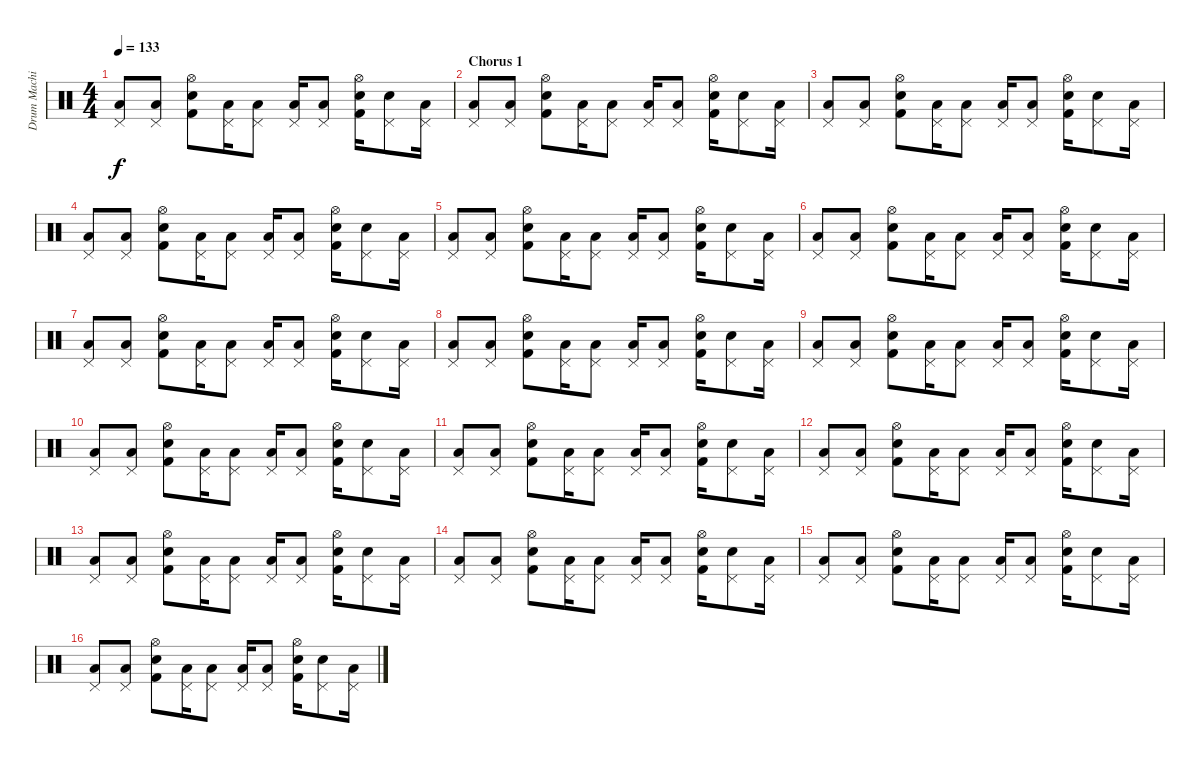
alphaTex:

\track ("Drum Machine" "Drum Machi") {instrument percussion}
\staff {score}
\articulation defaults
\ts (4 4)
\tempo 133
\clef neutral
\ks c
("Pedal Hi-Hat (hit)" "Low Tom (hit)").8{dy f} ("Pedal Hi-Hat (hit)" "Low Tom (hit)").8 ("Hi-Hat (open)" "Snare (hit) 2" "Kick (hit) 2").8 ("Pedal Hi-Hat (hit)" "Low Tom (hit)").16 ("Pedal Hi-Hat (hit)" "Low Tom (hit)").8 ("Pedal Hi-Hat (hit)" "Low Tom (hit)").16 ("Pedal Hi-Hat (hit)" "Low Tom (hit)").8 ("Hi-Hat (open)" "Snare (hit) 2" "Kick (hit) 2").16 ("Pedal Hi-Hat (hit)" "Snare (hit) 2").8 ("Pedal Hi-Hat (hit)" "Low Tom (hit)").16 |
\section ("" "Chorus 1")
("Pedal Hi-Hat (hit)" "Low Tom (hit)").8 ("Pedal Hi-Hat (hit)" "Low Tom (hit)").8 ("Hi-Hat (open)" "Snare (hit) 2" "Kick (hit) 2").8 ("Pedal Hi-Hat (hit)" "Low Tom (hit)").16 ("Pedal Hi-Hat (hit)" "Low Tom (hit)").8 ("Pedal Hi-Hat (hit)" "Low Tom (hit)").16 ("Pedal Hi-Hat (hit)" "Low Tom (hit)").8 ("Hi-Hat (open)" "Snare (hit) 2" "Kick (hit) 2").16 ("Pedal Hi-Hat (hit)" "Snare (hit) 2").8 ("Pedal Hi-Hat (hit)" "Low Tom (hit)").16 |
("Pedal Hi-Hat (hit)" "Low Tom (hit)").8 ("Pedal Hi-Hat (hit)" "Low Tom (hit)").8 ("Hi-Hat (open)" "Snare (hit) 2" "Kick (hit) 2").8 ("Pedal Hi-Hat (hit)" "Low Tom (hit)").16 ("Pedal Hi-Hat (hit)" "Low Tom (hit)").8 ("Pedal Hi-Hat (hit)" "Low Tom (hit)").16 ("Pedal Hi-Hat (hit)" "Low Tom (hit)").8 ("Hi-Hat (open)" "Snare (hit) 2" "Kick (hit) 2").16 ("Pedal Hi-Hat (hit)" "Snare (hit) 2").8 ("Pedal Hi-Hat (hit)" "Low Tom (hit)").16 |
("Pedal Hi-Hat (hit)" "Low Tom (hit)").8 ("Pedal Hi-Hat (hit)" "Low Tom (hit)").8 ("Hi-Hat (open)" "Snare (hit) 2" "Kick (hit) 2").8 ("Pedal Hi-Hat (hit)" "Low Tom (hit)").16 ("Pedal Hi-Hat (hit)" "Low Tom (hit)").8 ("Pedal Hi-Hat (hit)" "Low Tom (hit)").16 ("Pedal Hi-Hat (hit)" "Low Tom (hit)").8 ("Hi-Hat (open)" "Snare (hit) 2" "Kick (hit) 2").16 ("Pedal Hi-Hat (hit)" "Snare (hit) 2").8 ("Pedal Hi-Hat (hit)" "Low Tom (hit)").16 |
("Pedal Hi-Hat (hit)" "Low Tom (hit)").8 ("Pedal Hi-Hat (hit)" "Low Tom (hit)").8 ("Hi-Hat (open)" "Snare (hit) 2" "Kick (hit) 2").8 ("Pedal Hi-Hat (hit)" "Low Tom (hit)").16 ("Pedal Hi-Hat (hit)" "Low Tom (hit)").8 ("Pedal Hi-Hat (hit)" "Low Tom (hit)").16 ("Pedal Hi-Hat (hit)" "Low Tom (hit)").8 ("Hi-Hat (open)" "Snare (hit) 2" "Kick (hit) 2").16 ("Pedal Hi-Hat (hit)" "Snare (hit) 2").8 ("Pedal Hi-Hat (hit)" "Low Tom (hit)").16 |
("Pedal Hi-Hat (hit)" "Low Tom (hit)").8 ("Pedal Hi-Hat (hit)" "Low Tom (hit)").8 ("Hi-Hat (open)" "Snare (hit) 2" "Kick (hit) 2").8 ("Pedal Hi-Hat (hit)" "Low Tom (hit)").16 ("Pedal Hi-Hat (hit)" "Low Tom (hit)").8 ("Pedal Hi-Hat (hit)" "Low Tom (hit)").16 ("Pedal Hi-Hat (hit)" "Low Tom (hit)").8 ("Hi-Hat (open)" "Snare (hit) 2" "Kick (hit) 2").16 ("Pedal Hi-Hat (hit)" "Snare (hit) 2").8 ("Pedal Hi-Hat (hit)" "Low Tom (hit)").16 |
("Pedal Hi-Hat (hit)" "Low Tom (hit)").8 ("Pedal Hi-Hat (hit)" "Low Tom (hit)").8 ("Hi-Hat (open)" "Snare (hit) 2" "Kick (hit) 2").8 ("Pedal Hi-Hat (hit)" "Low Tom (hit)").16 ("Pedal Hi-Hat (hit)" "Low Tom (hit)").8 ("Pedal Hi-Hat (hit)" "Low Tom (hit)").16 ("Pedal Hi-Hat (hit)" "Low Tom (hit)").8 ("Hi-Hat (open)" "Snare (hit) 2" "Kick (hit) 2").16 ("Pedal Hi-Hat (hit)" "Snare (hit) 2").8 ("Pedal Hi-Hat (hit)" "Low Tom (hit)").16 |
("Pedal Hi-Hat (hit)" "Low Tom (hit)").8 ("Pedal Hi-Hat (hit)" "Low Tom (hit)").8 ("Hi-Hat (open)" "Snare (hit) 2" "Kick (hit) 2").8 ("Pedal Hi-Hat (hit)" "Low Tom (hit)").16 ("Pedal Hi-Hat (hit)" "Low Tom (hit)").8 ("Pedal Hi-Hat (hit)" "Low Tom (hit)").16 ("Pedal Hi-Hat (hit)" "Low Tom (hit)").8 ("Hi-Hat (open)" "Snare (hit) 2" "Kick (hit) 2").16 ("Pedal Hi-Hat (hit)" "Snare (hit) 2").8 ("Pedal Hi-Hat (hit)" "Low Tom (hit)").16 |
("Pedal Hi-Hat (hit)" "Low Tom (hit)").8 ("Pedal Hi-Hat (hit)" "Low Tom (hit)").8 ("Hi-Hat (open)" "Snare (hit) 2" "Kick (hit) 2").8 ("Pedal Hi-Hat (hit)" "Low Tom (hit)").16 ("Pedal Hi-Hat (hit)" "Low Tom (hit)").8 ("Pedal Hi-Hat (hit)" "Low Tom (hit)").16 ("Pedal Hi-Hat (hit)" "Low Tom (hit)").8 ("Hi-Hat (open)" "Snare (hit) 2" "Kick (hit) 2").16 ("Pedal Hi-Hat (hit)" "Snare (hit) 2").8 ("Pedal Hi-Hat (hit)" "Low Tom (hit)").16 |
("Pedal Hi-Hat (hit)" "Low Tom (hit)").8 ("Pedal Hi-Hat (hit)" "Low Tom (hit)").8 ("Hi-Hat (open)" "Snare (hit) 2" "Kick (hit) 2").8 ("Pedal Hi-Hat (hit)" "Low Tom (hit)").16 ("Pedal Hi-Hat (hit)" "Low Tom (hit)").8 ("Pedal Hi-Hat (hit)" "Low Tom (hit)").16 ("Pedal Hi-Hat (hit)" "Low Tom (hit)").8 ("Hi-Hat (open)" "Snare (hit) 2" "Kick (hit) 2").16 ("Pedal Hi-Hat (hit)" "Snare (hit) 2").8 ("Pedal Hi-Hat (hit)" "Low Tom (hit)").16 |
("Pedal Hi-Hat (hit)" "Low Tom (hit)").8 ("Pedal Hi-Hat (hit)" "Low Tom (hit)").8 ("Hi-Hat (open)" "Snare (hit) 2" "Kick (hit) 2").8 ("Pedal Hi-Hat (hit)" "Low Tom (hit)").16 ("Pedal Hi-Hat (hit)" "Low Tom (hit)").8 ("Pedal Hi-Hat (hit)" "Low Tom (hit)").16 ("Pedal Hi-Hat (hit)" "Low Tom (hit)").8 ("Hi-Hat (open)" "Snare (hit) 2" "Kick (hit) 2").16 ("Pedal Hi-Hat (hit)" "Snare (hit) 2").8 ("Pedal Hi-Hat (hit)" "Low Tom (hit)").16 |
("Pedal Hi-Hat (hit)" "Low Tom (hit)").8 ("Pedal Hi-Hat (hit)" "Low Tom (hit)").8 ("Hi-Hat (open)" "Snare (hit) 2" "Kick (hit) 2").8 ("Pedal Hi-Hat (hit)" "Low Tom (hit)").16 ("Pedal Hi-Hat (hit)" "Low Tom (hit)").8 ("Pedal Hi-Hat (hit)" "Low Tom (hit)").16 ("Pedal Hi-Hat (hit)" "Low Tom (hit)").8 ("Hi-Hat (open)" "Snare (hit) 2" "Kick (hit) 2").16 ("Pedal Hi-Hat (hit)" "Snare (hit) 2").8 ("Pedal Hi-Hat (hit)" "Low Tom (hit)").16 |
("Pedal Hi-Hat (hit)" "Low Tom (hit)").8 ("Pedal Hi-Hat (hit)" "Low Tom (hit)").8 ("Hi-Hat (open)" "Snare (hit) 2" "Kick (hit) 2").8 ("Pedal Hi-Hat (hit)" "Low Tom (hit)").16 ("Pedal Hi-Hat (hit)" "Low Tom (hit)").8 ("Pedal Hi-Hat (hit)" "Low Tom (hit)").16 ("Pedal Hi-Hat (hit)" "Low Tom (hit)").8 ("Hi-Hat (open)" "Snare (hit) 2" "Kick (hit) 2").16 ("Pedal Hi-Hat (hit)" "Snare (hit) 2").8 ("Pedal Hi-Hat (hit)" "Low Tom (hit)").16 |
("Pedal Hi-Hat (hit)" "Low Tom (hit)").8 ("Pedal Hi-Hat (hit)" "Low Tom (hit)").8 ("Hi-Hat (open)" "Snare (hit) 2" "Kick (hit) 2").8 ("Pedal Hi-Hat (hit)" "Low Tom (hit)").16 ("Pedal Hi-Hat (hit)" "Low Tom (hit)").8 ("Pedal Hi-Hat (hit)" "Low Tom (hit)").16 ("Pedal Hi-Hat (hit)" "Low Tom (hit)").8 ("Hi-Hat (open)" "Snare (hit) 2" "Kick (hit) 2").16 ("Pedal Hi-Hat (hit)" "Snare (hit) 2").8 ("Pedal Hi-Hat (hit)" "Low Tom (hit)").16 |
("Pedal Hi-Hat (hit)" "Low Tom (hit)").8 ("Pedal Hi-Hat (hit)" "Low Tom (hit)").8 ("Hi-Hat (open)" "Snare (hit) 2" "Kick (hit) 2").8 ("Pedal Hi-Hat (hit)" "Low Tom (hit)").16 ("Pedal Hi-Hat (hit)" "Low Tom (hit)").8 ("Pedal Hi-Hat (hit)" "Low Tom (hit)").16 ("Pedal Hi-Hat (hit)" "Low Tom (hit)").8 ("Hi-Hat (open)" "Snare (hit) 2" "Kick (hit) 2").16 ("Pedal Hi-Hat (hit)" "Snare (hit) 2").8 ("Pedal Hi-Hat (hit)" "Low Tom (hit)").16 |
("Pedal Hi-Hat (hit)" "Low Tom (hit)").8 ("Pedal Hi-Hat (hit)" "Low Tom (hit)").8 ("Hi-Hat (open)" "Snare (hit) 2" "Kick (hit) 2").8 ("Pedal Hi-Hat (hit)" "Low Tom (hit)").16 ("Pedal Hi-Hat (hit)" "Low Tom (hit)").8 ("Pedal Hi-Hat (hit)" "Low Tom (hit)").16 ("Pedal Hi-Hat (hit)" "Low Tom (hit)").8 ("Hi-Hat (open)" "Snare (hit) 2" "Kick (hit) 2").16 ("Pedal Hi-Hat (hit)" "Snare (hit) 2").8 ("Pedal Hi-Hat (hit)" "Low Tom (hit)").16
